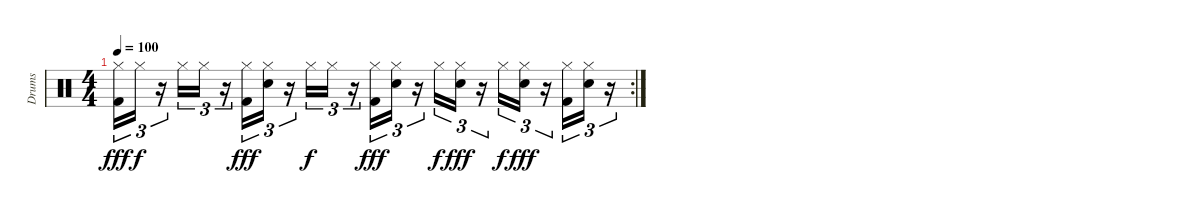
\track ("Drums" "Drums") {instrument percussion}
\staff {score}
\articulation defaults
\rc 2
\ts (4 4)
\tempo 100
\clef neutral
\ks c
("Hi-Hat (closed)" "Kick (hit) 2").16{tu (3 2) dy fff} "Hi-Hat (closed)".16{tu (3 2) dy f} r.16{tu (3 2)} "Hi-Hat (closed)".16{tu (3 2)} "Hi-Hat (closed)".16{tu (3 2)} r.16{tu (3 2)} ("Hi-Hat (closed)" "Kick (hit) 2").16{tu (3 2) dy fff} ("Hi-Hat (closed)" "Snare (hit) 2").16{tu (3 2)} r.16{tu (3 2)} "Hi-Hat (closed)".16{tu (3 2) dy f} "Hi-Hat (closed)".16{tu (3 2)} r.16{tu (3 2)} ("Hi-Hat (closed)" "Kick (hit) 2").16{tu (3 2) dy fff} ("Hi-Hat (closed)" "Snare (hit) 2").16{tu (3 2)} r.16{tu (3 2)} "Hi-Hat (closed)".16{tu (3 2) dy f} ("Hi-Hat (closed)" "Snare (hit) 2").16{tu (3 2) dy fff} r.16{tu (3 2)} "Hi-Hat (closed)".16{tu (3 2) dy f} ("Hi-Hat (closed)" "Snare (hit) 2").16{tu (3 2) dy fff} r.16{tu (3 2)} ("Hi-Hat (closed)" "Kick (hit) 2").16{tu (3 2)} ("Hi-Hat (closed)" "Snare (hit) 2").16{tu (3 2)} r.16{tu (3 2)}
